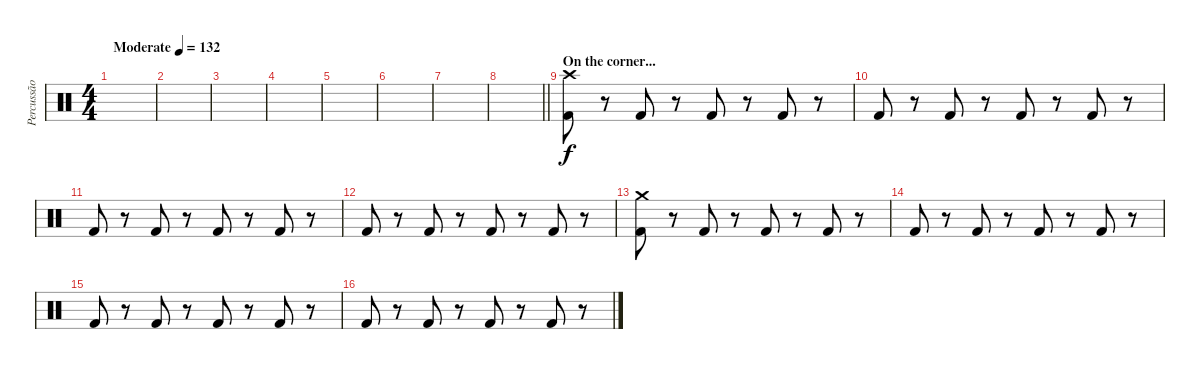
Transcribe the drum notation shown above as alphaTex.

\track ("Percussão" "Percussão") {instrument percussion}
\staff {score}
\articulation defaults
\ts (4 4)
\tempo (132 "Moderate")
\clef neutral
\ks c
|
|
|
|
|
|
|
\barLineRight lightlight
|
\section ("" "On the corner...")
("Kick (hit) 2" "Crash high (hit)").8 r.8 "Kick (hit) 2".8 r.8 "Kick (hit) 2".8 r.8 "Kick (hit) 2".8 r.8 |
"Kick (hit) 2".8 r.8 "Kick (hit) 2".8 r.8 "Kick (hit) 2".8 r.8 "Kick (hit) 2".8 r.8 |
"Kick (hit) 2".8 r.8 "Kick (hit) 2".8 r.8 "Kick (hit) 2".8 r.8 "Kick (hit) 2".8 r.8 |
"Kick (hit) 2".8 r.8 "Kick (hit) 2".8 r.8 "Kick (hit) 2".8 r.8 "Kick (hit) 2".8 r.8 |
("Kick (hit) 2" "Crash medium (hit)").8 r.8 "Kick (hit) 2".8 r.8 "Kick (hit) 2".8 r.8 "Kick (hit) 2".8 r.8 |
"Kick (hit) 2".8 r.8 "Kick (hit) 2".8 r.8 "Kick (hit) 2".8 r.8 "Kick (hit) 2".8 r.8 |
"Kick (hit) 2".8 r.8 "Kick (hit) 2".8 r.8 "Kick (hit) 2".8 r.8 "Kick (hit) 2".8 r.8 |
"Kick (hit) 2".8 r.8 "Kick (hit) 2".8 r.8 "Kick (hit) 2".8 r.8 "Kick (hit) 2".8 r.8
